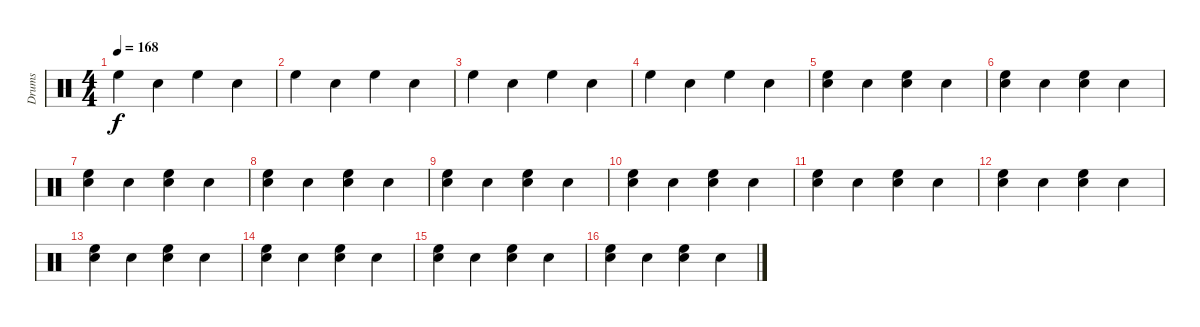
\track ("Drums" "Drums") {instrument percussion}
\staff {score}
\articulation defaults
\ts (4 4)
\tempo 168
\clef neutral
\ks c "High Floor Tom (hit)".4{dy f} "Electric Snare (hit)".4 "High Floor Tom (hit)".4 "Electric Snare (hit)".4
|
"High Floor Tom (hit)".4 "Electric Snare (hit)".4 "High Floor Tom (hit)".4 "Electric Snare (hit)".4 |
"High Floor Tom (hit)".4 "Electric Snare (hit)".4 "High Floor Tom (hit)".4 "Electric Snare (hit)".4 |
"High Floor Tom (hit)".4 "Electric Snare (hit)".4 "High Floor Tom (hit)".4 "Electric Snare (hit)".4 |
("Electric Snare (hit)" "High Floor Tom (hit)").4 "Electric Snare (hit)".4 ("Electric Snare (hit)" "High Floor Tom (hit)").4 "Electric Snare (hit)".4 |
("Electric Snare (hit)" "High Floor Tom (hit)").4 "Electric Snare (hit)".4 ("Electric Snare (hit)" "High Floor Tom (hit)").4 "Electric Snare (hit)".4 |
("Electric Snare (hit)" "High Floor Tom (hit)").4 "Electric Snare (hit)".4 ("Electric Snare (hit)" "High Floor Tom (hit)").4 "Electric Snare (hit)".4 |
("Electric Snare (hit)" "High Floor Tom (hit)").4 "Electric Snare (hit)".4 ("Electric Snare (hit)" "High Floor Tom (hit)").4 "Electric Snare (hit)".4 |
("Electric Snare (hit)" "High Floor Tom (hit)").4 "Electric Snare (hit)".4 ("Electric Snare (hit)" "High Floor Tom (hit)").4 "Electric Snare (hit)".4 |
("Electric Snare (hit)" "High Floor Tom (hit)").4 "Electric Snare (hit)".4 ("Electric Snare (hit)" "High Floor Tom (hit)").4 "Electric Snare (hit)".4 |
("Electric Snare (hit)" "High Floor Tom (hit)").4 "Electric Snare (hit)".4 ("Electric Snare (hit)" "High Floor Tom (hit)").4 "Electric Snare (hit)".4 |
("Electric Snare (hit)" "High Floor Tom (hit)").4 "Electric Snare (hit)".4 ("Electric Snare (hit)" "High Floor Tom (hit)").4 "Electric Snare (hit)".4 |
("Electric Snare (hit)" "High Floor Tom (hit)").4 "Electric Snare (hit)".4 ("Electric Snare (hit)" "High Floor Tom (hit)").4 "Electric Snare (hit)".4 |
("Electric Snare (hit)" "High Floor Tom (hit)").4 "Electric Snare (hit)".4 ("Electric Snare (hit)" "High Floor Tom (hit)").4 "Electric Snare (hit)".4 |
("Electric Snare (hit)" "High Floor Tom (hit)").4 "Electric Snare (hit)".4 ("Electric Snare (hit)" "High Floor Tom (hit)").4 "Electric Snare (hit)".4 |
("Electric Snare (hit)" "High Floor Tom (hit)").4 "Electric Snare (hit)".4 ("Electric Snare (hit)" "High Floor Tom (hit)").4 "Electric Snare (hit)".4
